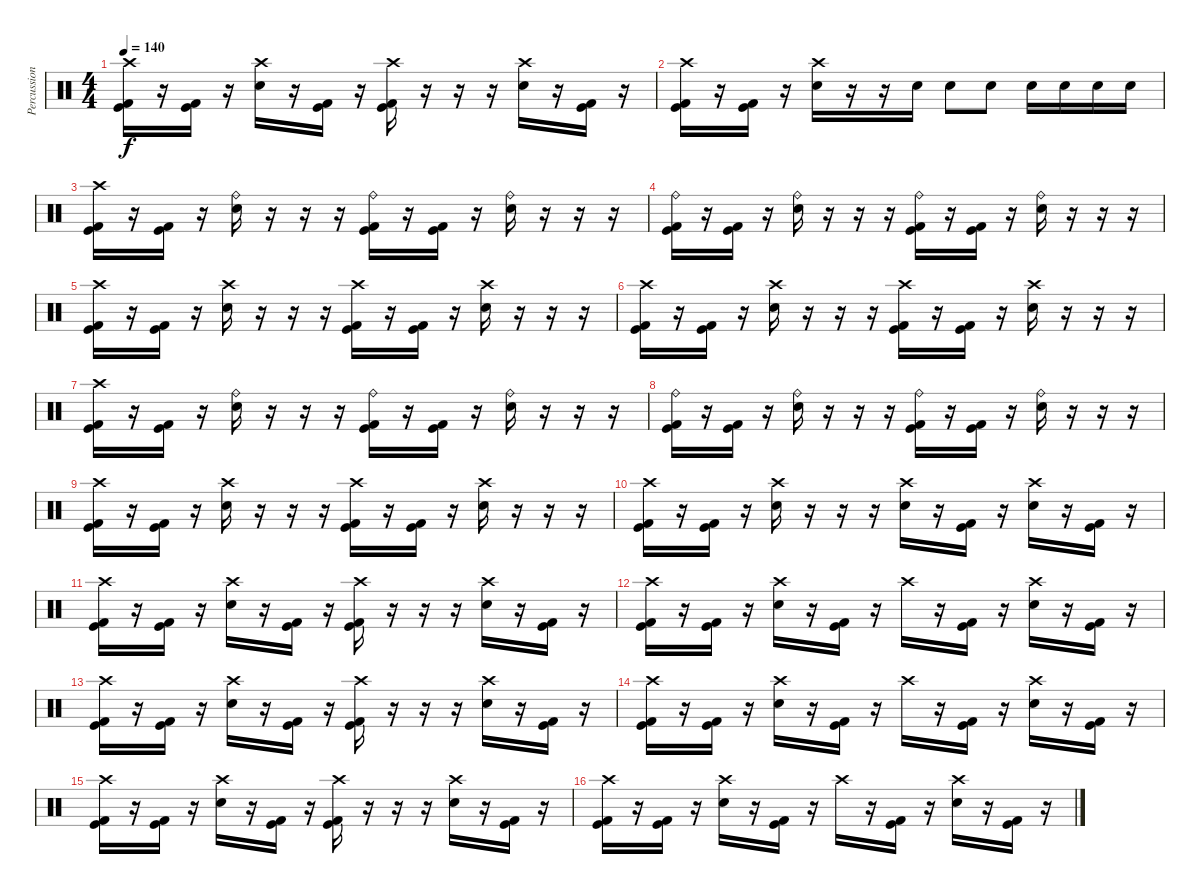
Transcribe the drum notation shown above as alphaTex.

\track ("Percussion" "Percussion") {instrument percussion}
\staff {score}
\articulation defaults
\ts (4 4)
\tempo 140
\clef neutral
\ks c
("Crash high (hit)" "Kick (hit)" "Kick (hit) 2").16{dy f} r.16 ("Kick (hit)" "Kick (hit) 2").16 r.16 ("Crash high (hit)" "Electric Snare (hit)").16 r.16 ("Kick (hit)" "Kick (hit) 2").16 r.16 ("Crash high (hit)" "Kick (hit)" "Kick (hit) 2").16 r.16 r.16 r.16 ("Crash high (hit)" "Electric Snare (hit)").16 r.16 ("Kick (hit)" "Kick (hit) 2").16 r.16 |
("Crash high (hit)" "Kick (hit)" "Kick (hit) 2").16 r.16 ("Kick (hit)" "Kick (hit) 2").16 r.16 ("Crash high (hit)" "Electric Snare (hit)").16 r.16 r.16 "Electric Snare (hit)".16 "Electric Snare (hit)".8 "Electric Snare (hit)".8 "Electric Snare (hit)".16 "Electric Snare (hit)".16 "Electric Snare (hit)".16 "Electric Snare (hit)".16 |
("Crash high (hit)" "Kick (hit)" "Kick (hit) 2").16 r.16 ("Kick (hit)" "Kick (hit) 2").16 r.16 ("Ride (bell)" "Electric Snare (hit)").16 r.16 r.16 r.16 ("Ride (bell)" "Kick (hit)" "Kick (hit) 2").16 r.16 ("Kick (hit)" "Kick (hit) 2").16 r.16 ("Ride (bell)" "Electric Snare (hit)").16 r.16 r.16 r.16 |
("Ride (bell)" "Kick (hit)" "Kick (hit) 2").16 r.16 ("Kick (hit)" "Kick (hit) 2").16 r.16 ("Ride (bell)" "Electric Snare (hit)").16 r.16 r.16 r.16 ("Ride (bell)" "Kick (hit)" "Kick (hit) 2").16 r.16 ("Kick (hit)" "Kick (hit) 2").16 r.16 ("Ride (bell)" "Electric Snare (hit)").16 r.16 r.16 r.16 |
("Crash high (hit)" "Kick (hit)" "Kick (hit) 2").16 r.16 ("Kick (hit)" "Kick (hit) 2").16 r.16 ("Crash high (hit)" "Electric Snare (hit)").16 r.16 r.16 r.16 ("Crash high (hit)" "Kick (hit)" "Kick (hit) 2").16 r.16 ("Kick (hit)" "Kick (hit) 2").16 r.16 ("Crash high (hit)" "Electric Snare (hit)").16 r.16 r.16 r.16 |
("Crash high (hit)" "Kick (hit)" "Kick (hit) 2").16 r.16 ("Kick (hit)" "Kick (hit) 2").16 r.16 ("Crash high (hit)" "Electric Snare (hit)").16 r.16 r.16 r.16 ("Crash high (hit)" "Kick (hit)" "Kick (hit) 2").16 r.16 ("Kick (hit)" "Kick (hit) 2").16 r.16 ("Crash high (hit)" "Electric Snare (hit)").16 r.16 r.16 r.16 |
("Crash high (hit)" "Kick (hit)" "Kick (hit) 2").16 r.16 ("Kick (hit)" "Kick (hit) 2").16 r.16 ("Ride (bell)" "Electric Snare (hit)").16 r.16 r.16 r.16 ("Ride (bell)" "Kick (hit)" "Kick (hit) 2").16 r.16 ("Kick (hit)" "Kick (hit) 2").16 r.16 ("Ride (bell)" "Electric Snare (hit)").16 r.16 r.16 r.16 |
("Ride (bell)" "Kick (hit)" "Kick (hit) 2").16 r.16 ("Kick (hit)" "Kick (hit) 2").16 r.16 ("Ride (bell)" "Electric Snare (hit)").16 r.16 r.16 r.16 ("Ride (bell)" "Kick (hit)" "Kick (hit) 2").16 r.16 ("Kick (hit)" "Kick (hit) 2").16 r.16 ("Ride (bell)" "Electric Snare (hit)").16 r.16 r.16 r.16 |
("Crash high (hit)" "Kick (hit)" "Kick (hit) 2").16 r.16 ("Kick (hit)" "Kick (hit) 2").16 r.16 ("Crash high (hit)" "Electric Snare (hit)").16 r.16 r.16 r.16 ("Crash high (hit)" "Kick (hit)" "Kick (hit) 2").16 r.16 ("Kick (hit)" "Kick (hit) 2").16 r.16 ("Crash high (hit)" "Electric Snare (hit)").16 r.16 r.16 r.16 |
("Crash high (hit)" "Kick (hit)" "Kick (hit) 2").16 r.16 ("Kick (hit)" "Kick (hit) 2").16 r.16 ("Crash high (hit)" "Electric Snare (hit)").16 r.16 r.16 r.16 ("Crash high (hit)" "Electric Snare (hit)").16 r.16 ("Kick (hit)" "Kick (hit) 2").16 r.16 ("Crash high (hit)" "Electric Snare (hit)").16 r.16 ("Kick (hit)" "Kick (hit) 2").16 r.16 |
("Crash high (hit)" "Kick (hit)" "Kick (hit) 2").16 r.16 ("Kick (hit)" "Kick (hit) 2").16 r.16 ("Crash high (hit)" "Electric Snare (hit)").16 r.16 ("Kick (hit)" "Kick (hit) 2").16 r.16 ("Crash high (hit)" "Kick (hit)" "Kick (hit) 2").16 r.16 r.16 r.16 ("Crash high (hit)" "Electric Snare (hit)").16 r.16 ("Kick (hit)" "Kick (hit) 2").16 r.16 |
("Crash high (hit)" "Kick (hit)" "Kick (hit) 2").16 r.16 ("Kick (hit)" "Kick (hit) 2").16 r.16 ("Crash high (hit)" "Electric Snare (hit)").16 r.16 ("Kick (hit)" "Kick (hit) 2").16 r.16 "Crash high (hit)".16 r.16 ("Kick (hit)" "Kick (hit) 2").16 r.16 ("Crash high (hit)" "Electric Snare (hit)").16 r.16 ("Kick (hit)" "Kick (hit) 2").16 r.16 |
("Crash high (hit)" "Kick (hit)" "Kick (hit) 2").16 r.16 ("Kick (hit)" "Kick (hit) 2").16 r.16 ("Crash high (hit)" "Electric Snare (hit)").16 r.16 ("Kick (hit)" "Kick (hit) 2").16 r.16 ("Crash high (hit)" "Kick (hit)" "Kick (hit) 2").16 r.16 r.16 r.16 ("Crash high (hit)" "Electric Snare (hit)").16 r.16 ("Kick (hit)" "Kick (hit) 2").16 r.16 |
("Crash high (hit)" "Kick (hit)" "Kick (hit) 2").16 r.16 ("Kick (hit)" "Kick (hit) 2").16 r.16 ("Crash high (hit)" "Electric Snare (hit)").16 r.16 ("Kick (hit)" "Kick (hit) 2").16 r.16 "Crash high (hit)".16 r.16 ("Kick (hit)" "Kick (hit) 2").16 r.16 ("Crash high (hit)" "Electric Snare (hit)").16 r.16 ("Kick (hit)" "Kick (hit) 2").16 r.16 |
("Crash high (hit)" "Kick (hit)" "Kick (hit) 2").16 r.16 ("Kick (hit)" "Kick (hit) 2").16 r.16 ("Crash high (hit)" "Electric Snare (hit)").16 r.16 ("Kick (hit)" "Kick (hit) 2").16 r.16 ("Crash high (hit)" "Kick (hit)" "Kick (hit) 2").16 r.16 r.16 r.16 ("Crash high (hit)" "Electric Snare (hit)").16 r.16 ("Kick (hit)" "Kick (hit) 2").16 r.16 |
("Crash high (hit)" "Kick (hit)" "Kick (hit) 2").16 r.16 ("Kick (hit)" "Kick (hit) 2").16 r.16 ("Crash high (hit)" "Electric Snare (hit)").16 r.16 ("Kick (hit)" "Kick (hit) 2").16 r.16 "Crash high (hit)".16 r.16 ("Kick (hit)" "Kick (hit) 2").16 r.16 ("Crash high (hit)" "Electric Snare (hit)").16 r.16 ("Kick (hit)" "Kick (hit) 2").16 r.16
